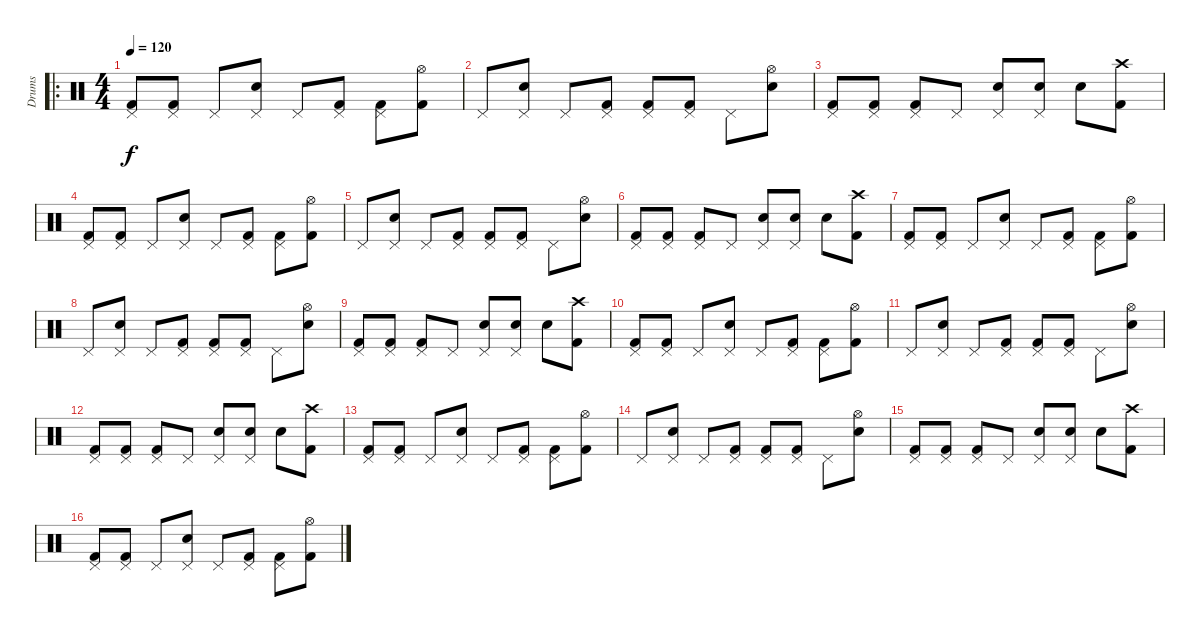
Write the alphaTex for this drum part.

\track ("Drums" "Drums") {instrument percussion}
\staff {score}
\articulation defaults
\ro
\ts (4 4)
\tempo 120
\clef neutral
\ks c
("Pedal Hi-Hat (hit)" "Kick (hit) 2").8{dy f} ("Pedal Hi-Hat (hit)" "Kick (hit) 2").8 "Pedal Hi-Hat (hit)".8 ("Pedal Hi-Hat (hit)" "Snare (hit) 2").8 "Pedal Hi-Hat (hit)".8 ("Pedal Hi-Hat (hit)" "Kick (hit) 2").8 ("Pedal Hi-Hat (hit)" "Kick (hit) 2").8 ("Hi-Hat (open)" "Kick (hit) 2").8 |
"Pedal Hi-Hat (hit)".8 ("Pedal Hi-Hat (hit)" "Snare (hit) 2").8 "Pedal Hi-Hat (hit)".8 ("Pedal Hi-Hat (hit)" "Kick (hit) 2").8 ("Pedal Hi-Hat (hit)" "Kick (hit) 2").8 ("Pedal Hi-Hat (hit)" "Kick (hit) 2").8 "Pedal Hi-Hat (hit)".8 ("Hi-Hat (open)" "Snare (hit) 2").8 |
("Pedal Hi-Hat (hit)" "Kick (hit) 2").8 ("Pedal Hi-Hat (hit)" "Kick (hit) 2").8 ("Pedal Hi-Hat (hit)" "Kick (hit) 2").8 "Pedal Hi-Hat (hit)".8 ("Pedal Hi-Hat (hit)" "Snare (hit) 2").8 ("Pedal Hi-Hat (hit)" "Snare (hit) 2").8 "Snare (hit) 2".8 ("Crash high (hit)" "Kick (hit) 2").8 |
("Pedal Hi-Hat (hit)" "Kick (hit) 2").8 ("Pedal Hi-Hat (hit)" "Kick (hit) 2").8 "Pedal Hi-Hat (hit)".8 ("Pedal Hi-Hat (hit)" "Snare (hit) 2").8 "Pedal Hi-Hat (hit)".8 ("Pedal Hi-Hat (hit)" "Kick (hit) 2").8 ("Pedal Hi-Hat (hit)" "Kick (hit) 2").8 ("Hi-Hat (open)" "Kick (hit) 2").8 |
"Pedal Hi-Hat (hit)".8 ("Pedal Hi-Hat (hit)" "Snare (hit) 2").8 "Pedal Hi-Hat (hit)".8 ("Pedal Hi-Hat (hit)" "Kick (hit) 2").8 ("Pedal Hi-Hat (hit)" "Kick (hit) 2").8 ("Pedal Hi-Hat (hit)" "Kick (hit) 2").8 "Pedal Hi-Hat (hit)".8 ("Hi-Hat (open)" "Snare (hit) 2").8 |
("Pedal Hi-Hat (hit)" "Kick (hit) 2").8 ("Pedal Hi-Hat (hit)" "Kick (hit) 2").8 ("Pedal Hi-Hat (hit)" "Kick (hit) 2").8 "Pedal Hi-Hat (hit)".8 ("Pedal Hi-Hat (hit)" "Snare (hit) 2").8 ("Pedal Hi-Hat (hit)" "Snare (hit) 2").8 "Snare (hit) 2".8 ("Crash high (hit)" "Kick (hit) 2").8 |
("Pedal Hi-Hat (hit)" "Kick (hit) 2").8 ("Pedal Hi-Hat (hit)" "Kick (hit) 2").8 "Pedal Hi-Hat (hit)".8 ("Pedal Hi-Hat (hit)" "Snare (hit) 2").8 "Pedal Hi-Hat (hit)".8 ("Pedal Hi-Hat (hit)" "Kick (hit) 2").8 ("Pedal Hi-Hat (hit)" "Kick (hit) 2").8 ("Hi-Hat (open)" "Kick (hit) 2").8 |
"Pedal Hi-Hat (hit)".8 ("Pedal Hi-Hat (hit)" "Snare (hit) 2").8 "Pedal Hi-Hat (hit)".8 ("Pedal Hi-Hat (hit)" "Kick (hit) 2").8 ("Pedal Hi-Hat (hit)" "Kick (hit) 2").8 ("Pedal Hi-Hat (hit)" "Kick (hit) 2").8 "Pedal Hi-Hat (hit)".8 ("Hi-Hat (open)" "Snare (hit) 2").8 |
("Pedal Hi-Hat (hit)" "Kick (hit) 2").8 ("Pedal Hi-Hat (hit)" "Kick (hit) 2").8 ("Pedal Hi-Hat (hit)" "Kick (hit) 2").8 "Pedal Hi-Hat (hit)".8 ("Pedal Hi-Hat (hit)" "Snare (hit) 2").8 ("Pedal Hi-Hat (hit)" "Snare (hit) 2").8 "Snare (hit) 2".8 ("Crash high (hit)" "Kick (hit) 2").8 |
("Pedal Hi-Hat (hit)" "Kick (hit) 2").8 ("Pedal Hi-Hat (hit)" "Kick (hit) 2").8 "Pedal Hi-Hat (hit)".8 ("Pedal Hi-Hat (hit)" "Snare (hit) 2").8 "Pedal Hi-Hat (hit)".8 ("Pedal Hi-Hat (hit)" "Kick (hit) 2").8 ("Pedal Hi-Hat (hit)" "Kick (hit) 2").8 ("Hi-Hat (open)" "Kick (hit) 2").8 |
"Pedal Hi-Hat (hit)".8 ("Pedal Hi-Hat (hit)" "Snare (hit) 2").8 "Pedal Hi-Hat (hit)".8 ("Pedal Hi-Hat (hit)" "Kick (hit) 2").8 ("Pedal Hi-Hat (hit)" "Kick (hit) 2").8 ("Pedal Hi-Hat (hit)" "Kick (hit) 2").8 "Pedal Hi-Hat (hit)".8 ("Hi-Hat (open)" "Snare (hit) 2").8 |
("Pedal Hi-Hat (hit)" "Kick (hit) 2").8 ("Pedal Hi-Hat (hit)" "Kick (hit) 2").8 ("Pedal Hi-Hat (hit)" "Kick (hit) 2").8 "Pedal Hi-Hat (hit)".8 ("Pedal Hi-Hat (hit)" "Snare (hit) 2").8 ("Pedal Hi-Hat (hit)" "Snare (hit) 2").8 "Snare (hit) 2".8 ("Crash high (hit)" "Kick (hit) 2").8 |
("Pedal Hi-Hat (hit)" "Kick (hit) 2").8 ("Pedal Hi-Hat (hit)" "Kick (hit) 2").8 "Pedal Hi-Hat (hit)".8 ("Pedal Hi-Hat (hit)" "Snare (hit) 2").8 "Pedal Hi-Hat (hit)".8 ("Pedal Hi-Hat (hit)" "Kick (hit) 2").8 ("Pedal Hi-Hat (hit)" "Kick (hit) 2").8 ("Hi-Hat (open)" "Kick (hit) 2").8 |
"Pedal Hi-Hat (hit)".8 ("Pedal Hi-Hat (hit)" "Snare (hit) 2").8 "Pedal Hi-Hat (hit)".8 ("Pedal Hi-Hat (hit)" "Kick (hit) 2").8 ("Pedal Hi-Hat (hit)" "Kick (hit) 2").8 ("Pedal Hi-Hat (hit)" "Kick (hit) 2").8 "Pedal Hi-Hat (hit)".8 ("Hi-Hat (open)" "Snare (hit) 2").8 |
("Pedal Hi-Hat (hit)" "Kick (hit) 2").8 ("Pedal Hi-Hat (hit)" "Kick (hit) 2").8 ("Pedal Hi-Hat (hit)" "Kick (hit) 2").8 "Pedal Hi-Hat (hit)".8 ("Pedal Hi-Hat (hit)" "Snare (hit) 2").8 ("Pedal Hi-Hat (hit)" "Snare (hit) 2").8 "Snare (hit) 2".8 ("Crash high (hit)" "Kick (hit) 2").8 |
("Pedal Hi-Hat (hit)" "Kick (hit) 2").8 ("Pedal Hi-Hat (hit)" "Kick (hit) 2").8 "Pedal Hi-Hat (hit)".8 ("Pedal Hi-Hat (hit)" "Snare (hit) 2").8 "Pedal Hi-Hat (hit)".8 ("Pedal Hi-Hat (hit)" "Kick (hit) 2").8 ("Pedal Hi-Hat (hit)" "Kick (hit) 2").8 ("Hi-Hat (open)" "Kick (hit) 2").8
